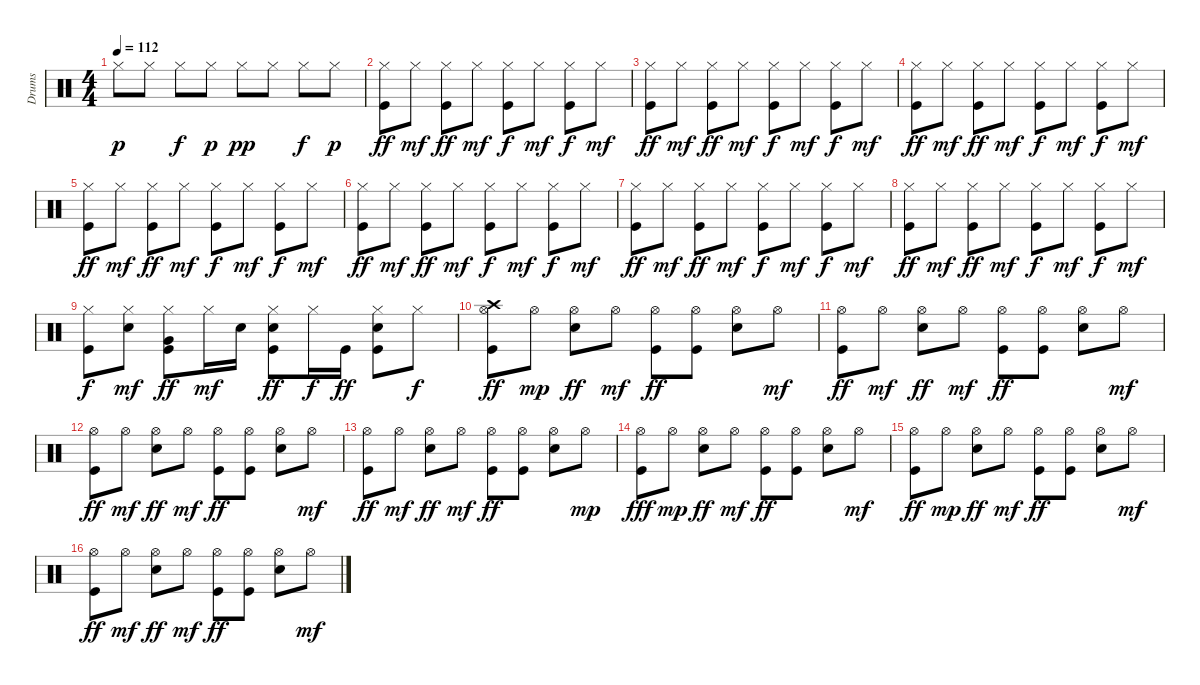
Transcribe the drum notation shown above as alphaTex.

\track ("Drums" "Drums") {instrument percussion}
\staff {score}
\articulation defaults
\ts (4 4)
\tempo 112
\clef neutral
\ks c "Hi-Hat (closed)".8{dy p} "Hi-Hat (closed)".8 "Hi-Hat (closed)".8{dy f} "Hi-Hat (closed)".8{dy p} "Hi-Hat (closed)".8{dy pp} "Hi-Hat (closed)".8 "Hi-Hat (closed)".8{dy f} "Hi-Hat (closed)".8{dy p}
|
("Kick (hit)" "Hi-Hat (closed)").8{dy ff} "Hi-Hat (closed)".8{dy mf} ("Kick (hit)" "Hi-Hat (closed)").8{dy ff} "Hi-Hat (closed)".8{dy mf} ("Kick (hit)" "Hi-Hat (closed)").8{dy f} "Hi-Hat (closed)".8{dy mf} ("Kick (hit)" "Hi-Hat (closed)").8{dy f} "Hi-Hat (closed)".8{dy mf} |
("Kick (hit)" "Hi-Hat (closed)").8{dy ff} "Hi-Hat (closed)".8{dy mf} ("Kick (hit)" "Hi-Hat (closed)").8{dy ff} "Hi-Hat (closed)".8{dy mf} ("Kick (hit)" "Hi-Hat (closed)").8{dy f} "Hi-Hat (closed)".8{dy mf} ("Kick (hit)" "Hi-Hat (closed)").8{dy f} "Hi-Hat (closed)".8{dy mf} |
("Kick (hit)" "Hi-Hat (closed)").8{dy ff} "Hi-Hat (closed)".8{dy mf} ("Kick (hit)" "Hi-Hat (closed)").8{dy ff} "Hi-Hat (closed)".8{dy mf} ("Kick (hit)" "Hi-Hat (closed)").8{dy f} "Hi-Hat (closed)".8{dy mf} ("Kick (hit)" "Hi-Hat (closed)").8{dy f} "Hi-Hat (closed)".8{dy mf} |
("Kick (hit)" "Hi-Hat (closed)").8{dy ff} "Hi-Hat (closed)".8{dy mf} ("Kick (hit)" "Hi-Hat (closed)").8{dy ff} "Hi-Hat (closed)".8{dy mf} ("Kick (hit)" "Hi-Hat (closed)").8{dy f} "Hi-Hat (closed)".8{dy mf} ("Kick (hit)" "Hi-Hat (closed)").8{dy f} "Hi-Hat (closed)".8{dy mf} |
("Kick (hit)" "Hi-Hat (closed)").8{dy ff} "Hi-Hat (closed)".8{dy mf} ("Kick (hit)" "Hi-Hat (closed)").8{dy ff} "Hi-Hat (closed)".8{dy mf} ("Kick (hit)" "Hi-Hat (closed)").8{dy f} "Hi-Hat (closed)".8{dy mf} ("Kick (hit)" "Hi-Hat (closed)").8{dy f} "Hi-Hat (closed)".8{dy mf} |
("Kick (hit)" "Hi-Hat (closed)").8{dy ff} "Hi-Hat (closed)".8{dy mf} ("Kick (hit)" "Hi-Hat (closed)").8{dy ff} "Hi-Hat (closed)".8{dy mf} ("Kick (hit)" "Hi-Hat (closed)").8{dy f} "Hi-Hat (closed)".8{dy mf} ("Kick (hit)" "Hi-Hat (closed)").8{dy f} "Hi-Hat (closed)".8{dy mf} |
("Kick (hit)" "Hi-Hat (closed)").8{dy ff} "Hi-Hat (closed)".8{dy mf} ("Kick (hit)" "Hi-Hat (closed)").8{dy ff} "Hi-Hat (closed)".8{dy mf} ("Kick (hit)" "Hi-Hat (closed)").8{dy f} "Hi-Hat (closed)".8{dy mf} ("Kick (hit)" "Hi-Hat (closed)").8{dy f} "Hi-Hat (closed)".8{dy mf} |
("Kick (hit)" "Hi-Hat (closed)").8{dy f} ("Electric Snare (hit)" "Hi-Hat (closed)").8{dy mf} ("Kick (hit)" "Hi-Hat (closed)" "Very Low Tom (hit)").8{dy ff} "Hi-Hat (closed)".16{dy mf} "Electric Snare (hit)".16 ("Kick (hit)" "Electric Snare (hit)" "Hi-Hat (closed)").8{dy ff} "Hi-Hat (closed)".16{dy f} "Kick (hit)".16{dy ff} ("Kick (hit)" "Electric Snare (hit)" "Hi-Hat (closed)").8 "Hi-Hat (closed)".8{dy f} |
("Kick (hit)" "Hi-Hat (open)" "Crash high (hit)").8{dy ff} "Hi-Hat (open)".8{dy mp} ("Electric Snare (hit)" "Hi-Hat (open)").8{dy ff} "Hi-Hat (open)".8{dy mf} ("Kick (hit)" "Hi-Hat (open)").8{dy ff} ("Kick (hit)" "Hi-Hat (open)").8 ("Electric Snare (hit)" "Hi-Hat (open)").8 "Hi-Hat (open)".8{dy mf} |
("Kick (hit)" "Hi-Hat (open)").8{dy ff} "Hi-Hat (open)".8{dy mf} ("Electric Snare (hit)" "Hi-Hat (open)").8{dy ff} "Hi-Hat (open)".8{dy mf} ("Kick (hit)" "Hi-Hat (open)").8{dy ff} ("Kick (hit)" "Hi-Hat (open)").8 ("Electric Snare (hit)" "Hi-Hat (open)").8 "Hi-Hat (open)".8{dy mf} |
("Kick (hit)" "Hi-Hat (open)").8{dy ff} "Hi-Hat (open)".8{dy mf} ("Electric Snare (hit)" "Hi-Hat (open)").8{dy ff} "Hi-Hat (open)".8{dy mf} ("Kick (hit)" "Hi-Hat (open)").8{dy ff} ("Kick (hit)" "Hi-Hat (open)").8 ("Electric Snare (hit)" "Hi-Hat (open)").8 "Hi-Hat (open)".8{dy mf} |
("Kick (hit)" "Hi-Hat (open)").8{dy ff} "Hi-Hat (open)".8{dy mf} ("Electric Snare (hit)" "Hi-Hat (open)").8{dy ff} "Hi-Hat (open)".8{dy mf} ("Kick (hit)" "Hi-Hat (open)").8{dy ff} ("Kick (hit)" "Hi-Hat (open)").8 ("Electric Snare (hit)" "Hi-Hat (open)").8 "Hi-Hat (open)".8{dy mp} |
("Kick (hit)" "Hi-Hat (open)").8{dy fff} "Hi-Hat (open)".8{dy mp} ("Electric Snare (hit)" "Hi-Hat (open)").8{dy ff} "Hi-Hat (open)".8{dy mf} ("Kick (hit)" "Hi-Hat (open)").8{dy ff} ("Kick (hit)" "Hi-Hat (open)").8 ("Electric Snare (hit)" "Hi-Hat (open)").8 "Hi-Hat (open)".8{dy mf} |
("Kick (hit)" "Hi-Hat (open)").8{dy ff} "Hi-Hat (open)".8{dy mp} ("Electric Snare (hit)" "Hi-Hat (open)").8{dy ff} "Hi-Hat (open)".8{dy mf} ("Kick (hit)" "Hi-Hat (open)").8{dy ff} ("Kick (hit)" "Hi-Hat (open)").8 ("Electric Snare (hit)" "Hi-Hat (open)").8 "Hi-Hat (open)".8{dy mf} |
("Kick (hit)" "Hi-Hat (open)").8{dy ff} "Hi-Hat (open)".8{dy mf} ("Electric Snare (hit)" "Hi-Hat (open)").8{dy ff} "Hi-Hat (open)".8{dy mf} ("Kick (hit)" "Hi-Hat (open)").8{dy ff} ("Kick (hit)" "Hi-Hat (open)").8 ("Electric Snare (hit)" "Hi-Hat (open)").8 "Hi-Hat (open)".8{dy mf}
